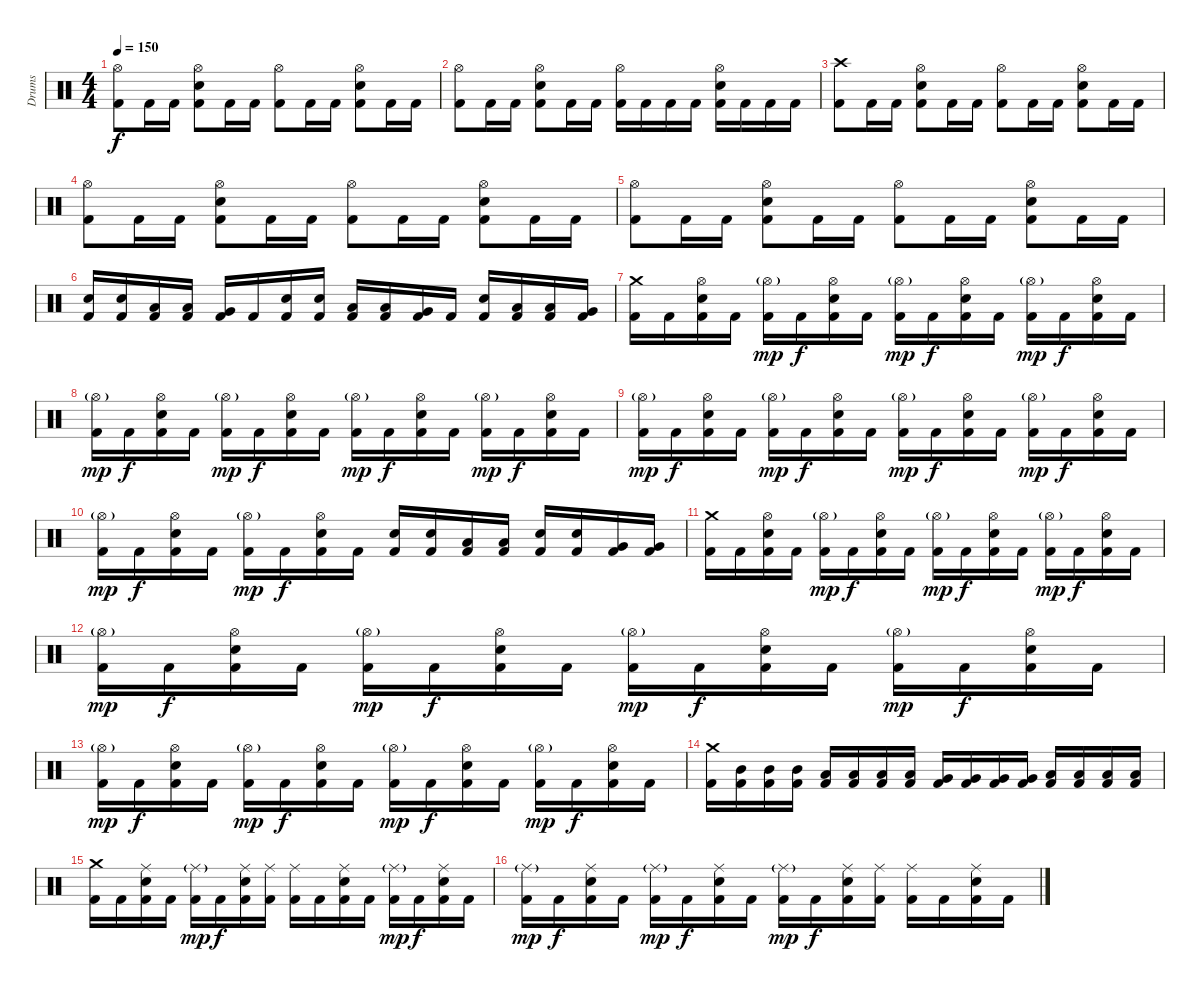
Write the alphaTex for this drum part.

\track ("Drums" "Drums") {instrument percussion}
\staff {score}
\articulation defaults
\ts (4 4)
\tempo 150
\clef neutral
\ks c
("Hi-Hat (open)" "Kick (hit) 2").8{dy f} "Kick (hit) 2".16 "Kick (hit) 2".16 ("Hi-Hat (open)" "Electric Snare (hit)" "Kick (hit) 2").8 "Kick (hit) 2".16 "Kick (hit) 2".16 ("Hi-Hat (open)" "Kick (hit) 2").8 "Kick (hit) 2".16 "Kick (hit) 2".16 ("Hi-Hat (open)" "Electric Snare (hit)" "Kick (hit) 2").8 "Kick (hit) 2".16 "Kick (hit) 2".16 |
("Hi-Hat (open)" "Kick (hit) 2").8 "Kick (hit) 2".16 "Kick (hit) 2".16 ("Hi-Hat (open)" "Electric Snare (hit)" "Kick (hit) 2").8 "Kick (hit) 2".16 "Kick (hit) 2".16 ("Hi-Hat (open)" "Kick (hit) 2").16 "Kick (hit) 2".16 "Kick (hit) 2".16 "Kick (hit) 2".16 ("Hi-Hat (open)" "Electric Snare (hit)" "Kick (hit) 2").16 "Kick (hit) 2".16 "Kick (hit) 2".16 "Kick (hit) 2".16 |
("Crash high (hit)" "Kick (hit) 2").8 "Kick (hit) 2".16 "Kick (hit) 2".16 ("Hi-Hat (open)" "Electric Snare (hit)" "Kick (hit) 2").8 "Kick (hit) 2".16 "Kick (hit) 2".16 ("Hi-Hat (open)" "Kick (hit) 2").8 "Kick (hit) 2".16 "Kick (hit) 2".16 ("Hi-Hat (open)" "Electric Snare (hit)" "Kick (hit) 2").8 "Kick (hit) 2".16 "Kick (hit) 2".16 |
("Hi-Hat (open)" "Kick (hit) 2").8 "Kick (hit) 2".16 "Kick (hit) 2".16 ("Hi-Hat (open)" "Electric Snare (hit)" "Kick (hit) 2").8 "Kick (hit) 2".16 "Kick (hit) 2".16 ("Hi-Hat (open)" "Kick (hit) 2").8 "Kick (hit) 2".16 "Kick (hit) 2".16 ("Hi-Hat (open)" "Electric Snare (hit)" "Kick (hit) 2").8 "Kick (hit) 2".16 "Kick (hit) 2".16 |
("Hi-Hat (open)" "Kick (hit) 2").8 "Kick (hit) 2".16 "Kick (hit) 2".16 ("Hi-Hat (open)" "Electric Snare (hit)" "Kick (hit) 2").8 "Kick (hit) 2".16 "Kick (hit) 2".16 ("Hi-Hat (open)" "Kick (hit) 2").8 "Kick (hit) 2".16 "Kick (hit) 2".16 ("Hi-Hat (open)" "Electric Snare (hit)" "Kick (hit) 2").8 "Kick (hit) 2".16 "Kick (hit) 2".16 |
("Electric Snare (hit)" "Kick (hit) 2").16 ("Electric Snare (hit)" "Kick (hit) 2").16 ("Low Tom (hit)" "Kick (hit) 2").16 ("Low Tom (hit)" "Kick (hit) 2").16 ("Very Low Tom (hit)" "Kick (hit) 2").16 "Kick (hit) 2".16 ("Electric Snare (hit)" "Kick (hit) 2").16 ("Electric Snare (hit)" "Kick (hit) 2").16 ("Low Tom (hit)" "Kick (hit) 2").16 ("Low Tom (hit)" "Kick (hit) 2").16 ("Very Low Tom (hit)" "Kick (hit) 2").16 "Kick (hit) 2".16 ("Electric Snare (hit)" "Kick (hit) 2").16 ("Low Tom (hit)" "Kick (hit) 2").16 ("Low Tom (hit)" "Kick (hit) 2").16 ("Very Low Tom (hit)" "Kick (hit) 2").16 |
("Crash medium (hit)" "Kick (hit) 2").16 "Kick (hit) 2".16 ("Hi-Hat (open)" "Electric Snare (hit)" "Kick (hit) 2").16 "Kick (hit) 2".16 ("Hi-Hat (open)"{g} "Kick (hit) 2").16{dy mp} "Kick (hit) 2".16{dy f} ("Hi-Hat (open)" "Electric Snare (hit)" "Kick (hit) 2").16 "Kick (hit) 2".16 ("Hi-Hat (open)"{g} "Kick (hit) 2").16{dy mp} "Kick (hit) 2".16{dy f} ("Hi-Hat (open)" "Electric Snare (hit)" "Kick (hit) 2").16 "Kick (hit) 2".16 ("Hi-Hat (open)"{g} "Kick (hit) 2").16{dy mp} "Kick (hit) 2".16{dy f} ("Hi-Hat (open)" "Electric Snare (hit)" "Kick (hit) 2").16 "Kick (hit) 2".16 |
("Hi-Hat (open)"{g} "Kick (hit) 2").16{dy mp} "Kick (hit) 2".16{dy f} ("Hi-Hat (open)" "Electric Snare (hit)" "Kick (hit) 2").16 "Kick (hit) 2".16 ("Hi-Hat (open)"{g} "Kick (hit) 2").16{dy mp} "Kick (hit) 2".16{dy f} ("Hi-Hat (open)" "Electric Snare (hit)" "Kick (hit) 2").16 "Kick (hit) 2".16 ("Hi-Hat (open)"{g} "Kick (hit) 2").16{dy mp} "Kick (hit) 2".16{dy f} ("Hi-Hat (open)" "Electric Snare (hit)" "Kick (hit) 2").16 "Kick (hit) 2".16 ("Hi-Hat (open)"{g} "Kick (hit) 2").16{dy mp} "Kick (hit) 2".16{dy f} ("Hi-Hat (open)" "Electric Snare (hit)" "Kick (hit) 2").16 "Kick (hit) 2".16 |
("Hi-Hat (open)"{g} "Kick (hit) 2").16{dy mp} "Kick (hit) 2".16{dy f} ("Hi-Hat (open)" "Electric Snare (hit)" "Kick (hit) 2").16 "Kick (hit) 2".16 ("Hi-Hat (open)"{g} "Kick (hit) 2").16{dy mp} "Kick (hit) 2".16{dy f} ("Hi-Hat (open)" "Electric Snare (hit)" "Kick (hit) 2").16 "Kick (hit) 2".16 ("Hi-Hat (open)"{g} "Kick (hit) 2").16{dy mp} "Kick (hit) 2".16{dy f} ("Hi-Hat (open)" "Electric Snare (hit)" "Kick (hit) 2").16 "Kick (hit) 2".16 ("Hi-Hat (open)"{g} "Kick (hit) 2").16{dy mp} "Kick (hit) 2".16{dy f} ("Hi-Hat (open)" "Electric Snare (hit)" "Kick (hit) 2").16 "Kick (hit) 2".16 |
("Hi-Hat (open)"{g} "Kick (hit) 2").16{dy mp} "Kick (hit) 2".16{dy f} ("Hi-Hat (open)" "Electric Snare (hit)" "Kick (hit) 2").16 "Kick (hit) 2".16 ("Hi-Hat (open)"{g} "Kick (hit) 2").16{dy mp} "Kick (hit) 2".16{dy f} ("Hi-Hat (open)" "Electric Snare (hit)" "Kick (hit) 2").16 "Kick (hit) 2".16 ("Electric Snare (hit)" "Kick (hit) 2").16 ("Electric Snare (hit)" "Kick (hit) 2").16 ("Low Tom (hit)" "Kick (hit) 2").16 ("Low Tom (hit)" "Kick (hit) 2").16 ("Electric Snare (hit)" "Kick (hit) 2").16 ("Electric Snare (hit)" "Kick (hit) 2").16 ("Very Low Tom (hit)" "Kick (hit) 2").16 ("Very Low Tom (hit)" "Kick (hit) 2").16 |
("Crash medium (hit)" "Kick (hit) 2").16 "Kick (hit) 2".16 ("Hi-Hat (open)" "Electric Snare (hit)" "Kick (hit) 2").16 "Kick (hit) 2".16 ("Hi-Hat (open)"{g} "Kick (hit) 2").16{dy mp} "Kick (hit) 2".16{dy f} ("Hi-Hat (open)" "Electric Snare (hit)" "Kick (hit) 2").16 "Kick (hit) 2".16 ("Hi-Hat (open)"{g} "Kick (hit) 2").16{dy mp} "Kick (hit) 2".16{dy f} ("Hi-Hat (open)" "Electric Snare (hit)" "Kick (hit) 2").16 "Kick (hit) 2".16 ("Hi-Hat (open)"{g} "Kick (hit) 2").16{dy mp} "Kick (hit) 2".16{dy f} ("Hi-Hat (open)" "Electric Snare (hit)" "Kick (hit) 2").16 "Kick (hit) 2".16 |
("Hi-Hat (open)"{g} "Kick (hit) 2").16{dy mp} "Kick (hit) 2".16{dy f} ("Hi-Hat (open)" "Electric Snare (hit)" "Kick (hit) 2").16 "Kick (hit) 2".16 ("Hi-Hat (open)"{g} "Kick (hit) 2").16{dy mp} "Kick (hit) 2".16{dy f} ("Hi-Hat (open)" "Electric Snare (hit)" "Kick (hit) 2").16 "Kick (hit) 2".16 ("Hi-Hat (open)"{g} "Kick (hit) 2").16{dy mp} "Kick (hit) 2".16{dy f} ("Hi-Hat (open)" "Electric Snare (hit)" "Kick (hit) 2").16 "Kick (hit) 2".16 ("Hi-Hat (open)"{g} "Kick (hit) 2").16{dy mp} "Kick (hit) 2".16{dy f} ("Hi-Hat (open)" "Electric Snare (hit)" "Kick (hit) 2").16 "Kick (hit) 2".16 |
("Hi-Hat (open)"{g} "Kick (hit) 2").16{dy mp} "Kick (hit) 2".16{dy f} ("Hi-Hat (open)" "Electric Snare (hit)" "Kick (hit) 2").16 "Kick (hit) 2".16 ("Hi-Hat (open)"{g} "Kick (hit) 2").16{dy mp} "Kick (hit) 2".16{dy f} ("Hi-Hat (open)" "Electric Snare (hit)" "Kick (hit) 2").16 "Kick (hit) 2".16 ("Hi-Hat (open)"{g} "Kick (hit) 2").16{dy mp} "Kick (hit) 2".16{dy f} ("Hi-Hat (open)" "Electric Snare (hit)" "Kick (hit) 2").16 "Kick (hit) 2".16 ("Hi-Hat (open)"{g} "Kick (hit) 2").16{dy mp} "Kick (hit) 2".16{dy f} ("Hi-Hat (open)" "Electric Snare (hit)" "Kick (hit) 2").16 "Kick (hit) 2".16 |
("Crash medium (hit)" "Kick (hit) 2").16 ("Mid Tom (hit)" "Kick (hit) 2").16 ("Mid Tom (hit)" "Kick (hit) 2").16 ("Mid Tom (hit)" "Kick (hit) 2").16 ("Low Tom (hit)" "Kick (hit) 2").16 ("Low Tom (hit)" "Kick (hit) 2").16 ("Low Tom (hit)" "Kick (hit) 2").16 ("Low Tom (hit)" "Kick (hit) 2").16 ("Very Low Tom (hit)" "Kick (hit) 2").16 ("Very Low Tom (hit)" "Kick (hit) 2").16 ("Very Low Tom (hit)" "Kick (hit) 2").16 ("Very Low Tom (hit)" "Kick (hit) 2").16 ("Low Floor Tom (hit)" "Kick (hit) 2").16 ("Low Floor Tom (hit)" "Kick (hit) 2").16 ("Low Floor Tom (hit)" "Kick (hit) 2").16 ("Low Floor Tom (hit)" "Kick (hit) 2").16 |
("Crash medium (hit)" "Kick (hit) 2").16 "Kick (hit) 2".16 ("Ride (middle)" "Electric Snare (hit)" "Kick (hit) 2").16 "Kick (hit) 2".16 ("Ride (middle)"{g} "Kick (hit) 2").16{dy mp} "Kick (hit) 2".16{dy f} ("Ride (middle)" "Electric Snare (hit)" "Kick (hit) 2").16 ("Ride (middle)" "Kick (hit) 2").16 ("Ride (middle)" "Kick (hit) 2").16 "Kick (hit) 2".16 ("Ride (middle)" "Electric Snare (hit)" "Kick (hit) 2").16 "Kick (hit) 2".16 ("Ride (middle)"{g} "Kick (hit) 2").16{dy mp} "Kick (hit) 2".16{dy f} ("Ride (middle)" "Electric Snare (hit)" "Kick (hit) 2").16 "Kick (hit) 2".16 |
("Ride (middle)"{g} "Kick (hit) 2").16{dy mp} "Kick (hit) 2".16{dy f} ("Ride (middle)" "Electric Snare (hit)" "Kick (hit) 2").16 "Kick (hit) 2".16 ("Ride (middle)"{g} "Kick (hit) 2").16{dy mp} "Kick (hit) 2".16{dy f} ("Ride (middle)" "Electric Snare (hit)" "Kick (hit) 2").16 "Kick (hit) 2".16 ("Ride (middle)"{g} "Kick (hit) 2").16{dy mp} "Kick (hit) 2".16{dy f} ("Ride (middle)" "Electric Snare (hit)" "Kick (hit) 2").16 ("Ride (middle)" "Kick (hit) 2").16 ("Ride (middle)" "Kick (hit) 2").16 "Kick (hit) 2".16 ("Ride (middle)" "Electric Snare (hit)" "Kick (hit) 2").16 "Kick (hit) 2".16
